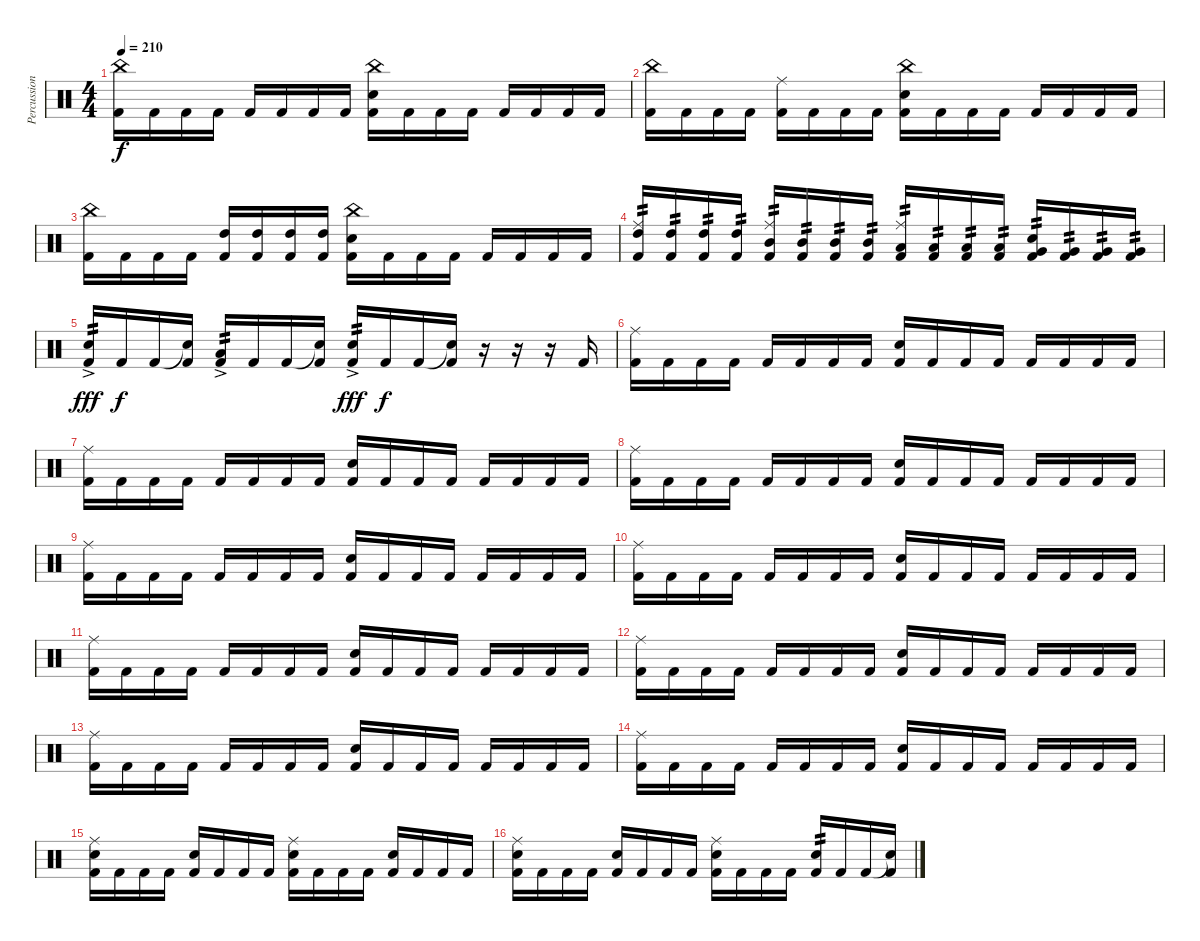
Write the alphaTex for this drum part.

\track ("Percussions" "Percussion") {instrument percussion}
\staff {score}
\articulation defaults
\ts (4 4)
\tempo 210
\clef neutral
\ks c
("China (hit)" "Kick (hit) 2").16{dy f} "Kick (hit) 2".16 "Kick (hit) 2".16 "Kick (hit) 2".16 "Kick (hit) 2".16 "Kick (hit) 2".16 "Kick (hit) 2".16 "Kick (hit) 2".16 ("China (hit)" "Snare (hit) 2" "Kick (hit) 2").16 "Kick (hit) 2".16 "Kick (hit) 2".16 "Kick (hit) 2".16 "Kick (hit) 2".16 "Kick (hit) 2".16 "Kick (hit) 2".16 "Kick (hit) 2".16 |
("China (hit)" "Kick (hit) 2").16 "Kick (hit) 2".16 "Kick (hit) 2".16 "Kick (hit) 2".16 ("Ride (middle)" "Kick (hit) 2").16 "Kick (hit) 2".16 "Kick (hit) 2".16 "Kick (hit) 2".16 ("Snare (hit) 2" "China (hit)" "Kick (hit) 2").16 "Kick (hit) 2".16 "Kick (hit) 2".16 "Kick (hit) 2".16 "Kick (hit) 2".16 "Kick (hit) 2".16 "Kick (hit) 2".16 "Kick (hit) 2".16 |
("China (hit)" "Kick (hit) 2").16 "Kick (hit) 2".16 "Kick (hit) 2".16 "Kick (hit) 2".16 ("High Tom (hit)" "Kick (hit) 2").16 ("High Tom (hit)" "Kick (hit) 2").16 ("High Tom (hit)" "Kick (hit) 2").16 ("High Tom (hit)" "Kick (hit) 2").16 ("China (hit)" "Snare (hit) 2" "Kick (hit) 2").16 "Kick (hit) 2".16 "Kick (hit) 2".16 "Kick (hit) 2".16 "Kick (hit) 2".16 "Kick (hit) 2".16 "Kick (hit) 2".16 "Kick (hit) 2".16 |
("High Tom (hit)" "Ride (middle)" "Kick (hit) 2").16{tp 2} ("High Tom (hit)" "Kick (hit) 2").16{tp 2} ("High Tom (hit)" "Kick (hit) 2").16{tp 2} ("High Tom (hit)" "Kick (hit) 2").16{tp 2} ("Mid Tom (hit)" "Ride (middle)" "Kick (hit) 2").16{tp 2} ("Mid Tom (hit)" "Kick (hit) 2").16{tp 2} ("Mid Tom (hit)" "Kick (hit) 2").16{tp 2} ("Mid Tom (hit)" "Kick (hit) 2").16{tp 2} ("Low Tom (hit)" "Ride (middle)" "Kick (hit) 2").16{tp 2} ("Low Tom (hit)" "Kick (hit) 2").16{tp 2} ("Low Tom (hit)" "Kick (hit) 2").16{tp 2} ("Low Tom (hit)" "Kick (hit) 2").16{tp 2} ("Very Low Tom (hit)" "Snare (hit) 2" "Kick (hit) 2").16{tp 2} ("Very Low Tom (hit)" "Kick (hit) 2").16{tp 2} ("Very Low Tom (hit)" "Kick (hit) 2").16{tp 2} ("Very Low Tom (hit)" "Kick (hit) 2").16{tp 2} |
("Snare (hit) 2"{ac} "Kick (hit) 2").16{tp 2 dy fff} "Kick (hit) 2".16{dy f} "Kick (hit) 2".16 ("Snare (hit)"{t} "Kick (hit) 2").16 ("Low Tom (hit)"{ac} "Kick (hit) 2").16{tp 2} "Kick (hit) 2".16 "Kick (hit) 2".16 ("Snare (hit)"{t} "Kick (hit) 2").16 ("Snare (hit) 2"{ac} "Kick (hit) 2").16{tp 2 dy fff} "Kick (hit) 2".16{dy f} "Kick (hit) 2".16 ("Snare (hit)"{t} "Kick (hit) 2").16 r.16 r.16 r.16 "Kick (hit) 2".16 |
("Ride (middle)" "Kick (hit) 2").16 "Kick (hit) 2".16 "Kick (hit) 2".16 "Kick (hit) 2".16 "Kick (hit) 2".16 "Kick (hit) 2".16 "Kick (hit) 2".16 "Kick (hit) 2".16 ("Snare (hit) 2" "Kick (hit) 2").16 "Kick (hit) 2".16 "Kick (hit) 2".16 "Kick (hit) 2".16 "Kick (hit) 2".16 "Kick (hit) 2".16 "Kick (hit) 2".16 "Kick (hit) 2".16 |
("Ride (middle)" "Kick (hit) 2").16 "Kick (hit) 2".16 "Kick (hit) 2".16 "Kick (hit) 2".16 "Kick (hit) 2".16 "Kick (hit) 2".16 "Kick (hit) 2".16 "Kick (hit) 2".16 ("Snare (hit) 2" "Kick (hit) 2").16 "Kick (hit) 2".16 "Kick (hit) 2".16 "Kick (hit) 2".16 "Kick (hit) 2".16 "Kick (hit) 2".16 "Kick (hit) 2".16 "Kick (hit) 2".16 |
("Ride (middle)" "Kick (hit) 2").16 "Kick (hit) 2".16 "Kick (hit) 2".16 "Kick (hit) 2".16 "Kick (hit) 2".16 "Kick (hit) 2".16 "Kick (hit) 2".16 "Kick (hit) 2".16 ("Snare (hit) 2" "Kick (hit) 2").16 "Kick (hit) 2".16 "Kick (hit) 2".16 "Kick (hit) 2".16 "Kick (hit) 2".16 "Kick (hit) 2".16 "Kick (hit) 2".16 "Kick (hit) 2".16 |
("Ride (middle)" "Kick (hit) 2").16 "Kick (hit) 2".16 "Kick (hit) 2".16 "Kick (hit) 2".16 "Kick (hit) 2".16 "Kick (hit) 2".16 "Kick (hit) 2".16 "Kick (hit) 2".16 ("Snare (hit) 2" "Kick (hit) 2").16 "Kick (hit) 2".16 "Kick (hit) 2".16 "Kick (hit) 2".16 "Kick (hit) 2".16 "Kick (hit) 2".16 "Kick (hit) 2".16 "Kick (hit) 2".16 |
("Ride (middle)" "Kick (hit) 2").16 "Kick (hit) 2".16 "Kick (hit) 2".16 "Kick (hit) 2".16 "Kick (hit) 2".16 "Kick (hit) 2".16 "Kick (hit) 2".16 "Kick (hit) 2".16 ("Snare (hit) 2" "Kick (hit) 2").16 "Kick (hit) 2".16 "Kick (hit) 2".16 "Kick (hit) 2".16 "Kick (hit) 2".16 "Kick (hit) 2".16 "Kick (hit) 2".16 "Kick (hit) 2".16 |
("Ride (middle)" "Kick (hit) 2").16 "Kick (hit) 2".16 "Kick (hit) 2".16 "Kick (hit) 2".16 "Kick (hit) 2".16 "Kick (hit) 2".16 "Kick (hit) 2".16 "Kick (hit) 2".16 ("Snare (hit) 2" "Kick (hit) 2").16 "Kick (hit) 2".16 "Kick (hit) 2".16 "Kick (hit) 2".16 "Kick (hit) 2".16 "Kick (hit) 2".16 "Kick (hit) 2".16 "Kick (hit) 2".16 |
("Ride (middle)" "Kick (hit) 2").16 "Kick (hit) 2".16 "Kick (hit) 2".16 "Kick (hit) 2".16 "Kick (hit) 2".16 "Kick (hit) 2".16 "Kick (hit) 2".16 "Kick (hit) 2".16 ("Snare (hit) 2" "Kick (hit) 2").16 "Kick (hit) 2".16 "Kick (hit) 2".16 "Kick (hit) 2".16 "Kick (hit) 2".16 "Kick (hit) 2".16 "Kick (hit) 2".16 "Kick (hit) 2".16 |
("Ride (middle)" "Kick (hit) 2").16 "Kick (hit) 2".16 "Kick (hit) 2".16 "Kick (hit) 2".16 "Kick (hit) 2".16 "Kick (hit) 2".16 "Kick (hit) 2".16 "Kick (hit) 2".16 ("Snare (hit) 2" "Kick (hit) 2").16 "Kick (hit) 2".16 "Kick (hit) 2".16 "Kick (hit) 2".16 "Kick (hit) 2".16 "Kick (hit) 2".16 "Kick (hit) 2".16 "Kick (hit) 2".16 |
("Ride (middle)" "Kick (hit) 2").16 "Kick (hit) 2".16 "Kick (hit) 2".16 "Kick (hit) 2".16 "Kick (hit) 2".16 "Kick (hit) 2".16 "Kick (hit) 2".16 "Kick (hit) 2".16 ("Snare (hit) 2" "Kick (hit) 2").16 "Kick (hit) 2".16 "Kick (hit) 2".16 "Kick (hit) 2".16 "Kick (hit) 2".16 "Kick (hit) 2".16 "Kick (hit) 2".16 "Kick (hit) 2".16 |
("Snare (hit) 2" "Ride (middle)" "Kick (hit) 2").16 "Kick (hit) 2".16 "Kick (hit) 2".16 "Kick (hit) 2".16 ("Snare (hit) 2" "Kick (hit) 2").16 "Kick (hit) 2".16 "Kick (hit) 2".16 "Kick (hit) 2".16 ("Snare (hit) 2" "Ride (middle)" "Kick (hit) 2").16 "Kick (hit) 2".16 "Kick (hit) 2".16 "Kick (hit) 2".16 ("Snare (hit) 2" "Kick (hit) 2").16 "Kick (hit) 2".16 "Kick (hit) 2".16 "Kick (hit) 2".16 |
("Snare (hit) 2" "Ride (middle)" "Kick (hit) 2").16 "Kick (hit) 2".16 "Kick (hit) 2".16 "Kick (hit) 2".16 ("Snare (hit) 2" "Kick (hit) 2").16 "Kick (hit) 2".16 "Kick (hit) 2".16 "Kick (hit) 2".16 ("Snare (hit) 2" "Ride (middle)" "Kick (hit) 2").16 "Kick (hit) 2".16 "Kick (hit) 2".16 "Kick (hit) 2".16 ("Snare (hit) 2" "Kick (hit) 2").16{tp 2} "Kick (hit) 2".16 "Kick (hit) 2".16 ("Snare (hit)"{t} "Kick (hit) 2").16
